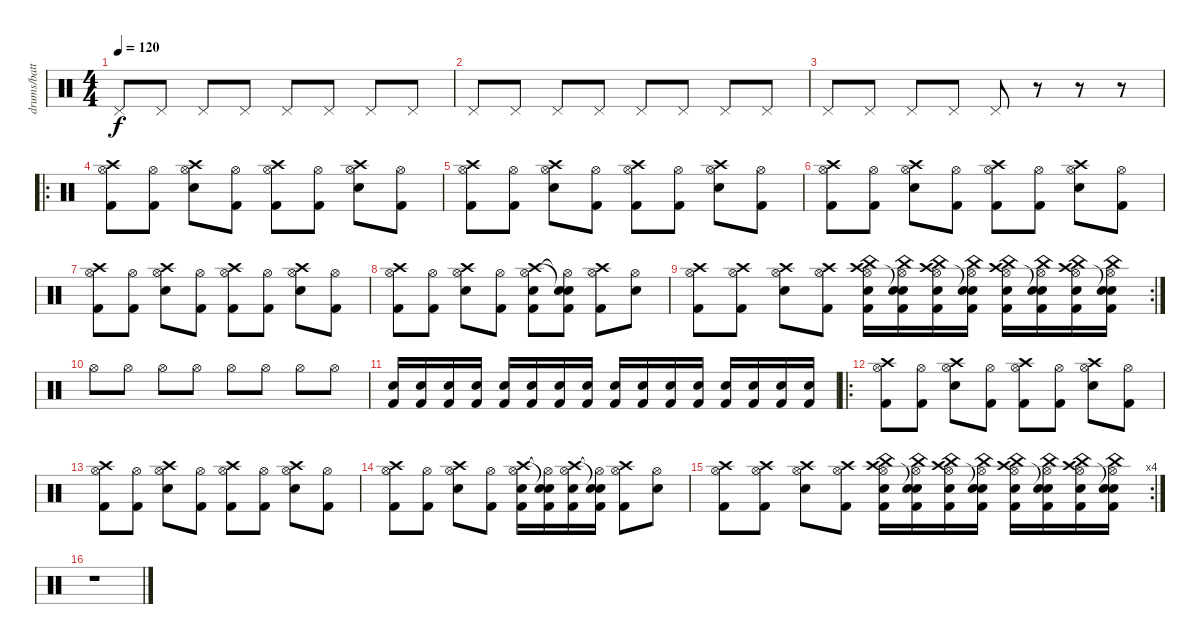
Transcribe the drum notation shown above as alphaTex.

\track ("drums/battery" "drums/batt") {instrument percussion}
\staff {score}
\articulation defaults
\ts (4 4)
\tempo 120
\clef neutral
\ks c "Pedal Hi-Hat (hit)".8{dy f} "Pedal Hi-Hat (hit)".8 "Pedal Hi-Hat (hit)".8 "Pedal Hi-Hat (hit)".8 "Pedal Hi-Hat (hit)".8 "Pedal Hi-Hat (hit)".8 "Pedal Hi-Hat (hit)".8 "Pedal Hi-Hat (hit)".8
|
"Pedal Hi-Hat (hit)".8 "Pedal Hi-Hat (hit)".8 "Pedal Hi-Hat (hit)".8 "Pedal Hi-Hat (hit)".8 "Pedal Hi-Hat (hit)".8 "Pedal Hi-Hat (hit)".8 "Pedal Hi-Hat (hit)".8 "Pedal Hi-Hat (hit)".8 |
"Pedal Hi-Hat (hit)".8 "Pedal Hi-Hat (hit)".8 "Pedal Hi-Hat (hit)".8 "Pedal Hi-Hat (hit)".8 "Pedal Hi-Hat (hit)".8 r.8 r.8 r.8 |
\ro
("Crash high (hit)" "Hi-Hat (open)" "Kick (hit) 2").8 ("Hi-Hat (open)" "Kick (hit) 2").8 ("Crash high (hit)" "Hi-Hat (open)" "Electric Snare (hit)").8 ("Hi-Hat (open)" "Kick (hit) 2").8 ("Crash high (hit)" "Hi-Hat (open)" "Kick (hit) 2").8 ("Hi-Hat (open)" "Kick (hit) 2").8 ("Crash high (hit)" "Hi-Hat (open)" "Electric Snare (hit)").8 ("Hi-Hat (open)" "Kick (hit) 2").8 |
("Crash high (hit)" "Hi-Hat (open)" "Kick (hit) 2").8 ("Hi-Hat (open)" "Kick (hit) 2").8 ("Crash high (hit)" "Hi-Hat (open)" "Electric Snare (hit)").8 ("Hi-Hat (open)" "Kick (hit) 2").8 ("Crash high (hit)" "Hi-Hat (open)" "Kick (hit) 2").8 ("Hi-Hat (open)" "Kick (hit) 2").8 ("Crash high (hit)" "Hi-Hat (open)" "Electric Snare (hit)").8 ("Hi-Hat (open)" "Kick (hit) 2").8 |
("Crash high (hit)" "Hi-Hat (open)" "Kick (hit) 2").8 ("Hi-Hat (open)" "Kick (hit) 2").8 ("Crash high (hit)" "Hi-Hat (open)" "Electric Snare (hit)").8 ("Hi-Hat (open)" "Kick (hit) 2").8 ("Crash high (hit)" "Hi-Hat (open)" "Kick (hit) 2").8 ("Hi-Hat (open)" "Kick (hit) 2").8 ("Crash high (hit)" "Hi-Hat (open)" "Electric Snare (hit)").8 ("Hi-Hat (open)" "Kick (hit) 2").8 |
("Crash high (hit)" "Hi-Hat (open)" "Kick (hit) 2").8 ("Hi-Hat (open)" "Kick (hit) 2").8 ("Crash high (hit)" "Hi-Hat (open)" "Electric Snare (hit)").8 ("Hi-Hat (open)" "Kick (hit) 2").8 ("Crash high (hit)" "Hi-Hat (open)" "Kick (hit) 2").8 ("Hi-Hat (open)" "Kick (hit) 2").8 ("Crash high (hit)" "Hi-Hat (open)" "Electric Snare (hit)").8 ("Hi-Hat (open)" "Kick (hit) 2").8 |
("Crash high (hit)" "Hi-Hat (open)" "Kick (hit) 2").8 ("Hi-Hat (open)" "Kick (hit) 2").8 ("Crash high (hit)" "Hi-Hat (open)" "Electric Snare (hit)").8 ("Hi-Hat (open)" "Kick (hit) 2").8 ("Crash high (hit)" "Electric Snare (hit)" "Hi-Hat (open)" "Kick (hit) 2").8 ("Snare (hit)"{t} "Electric Snare (hit)" "Hi-Hat (open)"{t} "Kick (hit) 2").8 ("Crash high (hit)" "Hi-Hat (open)" "Kick (hit) 2").8 ("Hi-Hat (open)" "Electric Snare (hit)").8 |
\rc 2
("Crash high (hit)" "Hi-Hat (open)" "Kick (hit) 2").8 ("Crash high (hit)" "Hi-Hat (open)" "Kick (hit) 2").8 ("Crash high (hit)" "Hi-Hat (open)" "Electric Snare (hit)").8 ("Crash high (hit)" "Hi-Hat (open)" "Kick (hit) 2").8 ("China (hit)" "Crash high (hit)" "Kick (hit) 2" "Hi-Hat (open)" "Electric Snare (hit)").16 ("China (hit)" "Snare (hit)"{t} "Kick (hit) 2" "Hi-Hat (open)" "Electric Snare (hit)").16 ("China (hit)" "Crash high (hit)" "Kick (hit) 2" "Hi-Hat (open)" "Electric Snare (hit)").16 ("China (hit)" "Snare (hit)"{t} "Kick (hit) 2" "Hi-Hat (open)" "Electric Snare (hit)").16 ("China (hit)" "Crash high (hit)" "Kick (hit) 2" "Hi-Hat (open)" "Electric Snare (hit)").16 ("China (hit)" "Snare (hit)"{t} "Kick (hit) 2" "Hi-Hat (open)" "Electric Snare (hit)").16 ("China (hit)" "Crash high (hit)" "Kick (hit) 2" "Hi-Hat (open)" "Electric Snare (hit)").16 ("China (hit)" "Snare (hit)"{t} "Kick (hit) 2" "Hi-Hat (open)" "Electric Snare (hit)").16 |
"Hi-Hat (open)".8 "Hi-Hat (open)".8 "Hi-Hat (open)".8 "Hi-Hat (open)".8 "Hi-Hat (open)".8 "Hi-Hat (open)".8 "Hi-Hat (open)".8 "Hi-Hat (open)".8 |
("Kick (hit) 2" "Electric Snare (hit)").16 ("Kick (hit) 2" "Electric Snare (hit)").16 ("Kick (hit) 2" "Electric Snare (hit)").16 ("Kick (hit) 2" "Electric Snare (hit)").16 ("Kick (hit) 2" "Electric Snare (hit)").16 ("Kick (hit) 2" "Electric Snare (hit)").16 ("Kick (hit) 2" "Electric Snare (hit)").16 ("Kick (hit) 2" "Electric Snare (hit)").16 ("Kick (hit) 2" "Electric Snare (hit)").16 ("Kick (hit) 2" "Electric Snare (hit)").16 ("Kick (hit) 2" "Electric Snare (hit)").16 ("Kick (hit) 2" "Electric Snare (hit)").16 ("Kick (hit) 2" "Electric Snare (hit)").16 ("Kick (hit) 2" "Electric Snare (hit)").16 ("Kick (hit) 2" "Electric Snare (hit)").16 ("Kick (hit) 2" "Electric Snare (hit)").16 |
\ro
("Crash high (hit)" "Hi-Hat (open)" "Kick (hit) 2").8 ("Hi-Hat (open)" "Kick (hit) 2").8 ("Crash high (hit)" "Hi-Hat (open)" "Electric Snare (hit)").8 ("Hi-Hat (open)" "Kick (hit) 2").8 ("Crash high (hit)" "Hi-Hat (open)" "Kick (hit) 2").8 ("Hi-Hat (open)" "Kick (hit) 2").8 ("Crash high (hit)" "Hi-Hat (open)" "Electric Snare (hit)").8 ("Hi-Hat (open)" "Kick (hit) 2").8 |
("Crash high (hit)" "Hi-Hat (open)" "Kick (hit) 2").8 ("Hi-Hat (open)" "Kick (hit) 2").8 ("Crash high (hit)" "Hi-Hat (open)" "Electric Snare (hit)").8 ("Hi-Hat (open)" "Kick (hit) 2").8 ("Crash high (hit)" "Hi-Hat (open)" "Kick (hit) 2").8 ("Hi-Hat (open)" "Kick (hit) 2").8 ("Crash high (hit)" "Hi-Hat (open)" "Electric Snare (hit)").8 ("Hi-Hat (open)" "Kick (hit) 2").8 |
("Crash high (hit)" "Hi-Hat (open)" "Kick (hit) 2").8 ("Hi-Hat (open)" "Kick (hit) 2").8 ("Crash high (hit)" "Hi-Hat (open)" "Electric Snare (hit)").8 ("Hi-Hat (open)" "Kick (hit) 2").8 ("Crash high (hit)" "Electric Snare (hit)" "Hi-Hat (open)" "Kick (hit) 2").16 ("Snare (hit)"{t} "Electric Snare (hit)" "Hi-Hat (open)"{t} "Kick (hit) 2").16 ("Crash high (hit)" "Electric Snare (hit)" "Hi-Hat (open)" "Kick (hit) 2").16 ("Snare (hit)"{t} "Electric Snare (hit)" "Hi-Hat (open)"{t} "Kick (hit) 2").16 ("Crash high (hit)" "Hi-Hat (open)" "Kick (hit) 2").8 ("Hi-Hat (open)" "Electric Snare (hit)").8 |
\rc 4
("Crash high (hit)" "Hi-Hat (open)" "Kick (hit) 2").8 ("Crash high (hit)" "Hi-Hat (open)" "Kick (hit) 2").8 ("Crash high (hit)" "Hi-Hat (open)" "Electric Snare (hit)").8 ("Crash high (hit)" "Hi-Hat (open)" "Kick (hit) 2").8 ("China (hit)" "Crash high (hit)" "Kick (hit) 2" "Hi-Hat (open)" "Electric Snare (hit)").16 ("China (hit)" "Snare (hit)"{t} "Kick (hit) 2" "Hi-Hat (open)" "Electric Snare (hit)").16 ("China (hit)" "Crash high (hit)" "Kick (hit) 2" "Hi-Hat (open)" "Electric Snare (hit)").16 ("China (hit)" "Snare (hit)"{t} "Kick (hit) 2" "Hi-Hat (open)" "Electric Snare (hit)").16 ("China (hit)" "Crash high (hit)" "Kick (hit) 2" "Hi-Hat (open)" "Electric Snare (hit)").16 ("China (hit)" "Snare (hit)"{t} "Kick (hit) 2" "Hi-Hat (open)" "Electric Snare (hit)").16 ("China (hit)" "Crash high (hit)" "Kick (hit) 2" "Hi-Hat (open)" "Electric Snare (hit)").16 ("China (hit)" "Snare (hit)"{t} "Kick (hit) 2" "Hi-Hat (open)" "Electric Snare (hit)").16 |
r.1
